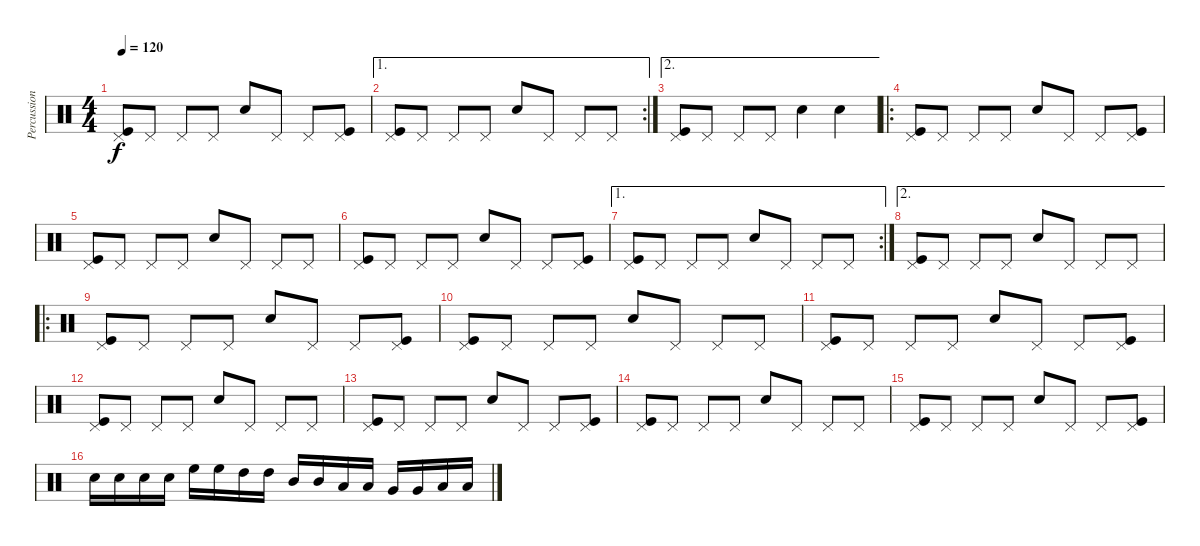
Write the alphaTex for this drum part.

\track ("Percussion" "Percussion") {instrument percussion}
\staff {score}
\articulation defaults
\ts (4 4)
\tempo 120
\clef neutral
\ks c
("Pedal Hi-Hat (hit)" "Kick (hit)").8{dy f} "Pedal Hi-Hat (hit)".8 "Pedal Hi-Hat (hit)".8 "Pedal Hi-Hat (hit)".8 "Snare (hit) 2".8 "Pedal Hi-Hat (hit)".8 "Pedal Hi-Hat (hit)".8 ("Pedal Hi-Hat (hit)" "Kick (hit)").8 |
\ae 1
\rc 2
("Pedal Hi-Hat (hit)" "Kick (hit)").8 "Pedal Hi-Hat (hit)".8 "Pedal Hi-Hat (hit)".8 "Pedal Hi-Hat (hit)".8 "Snare (hit) 2".8 "Pedal Hi-Hat (hit)".8 "Pedal Hi-Hat (hit)".8 "Pedal Hi-Hat (hit)".8 |
\ae 2
("Pedal Hi-Hat (hit)" "Kick (hit)").8 "Pedal Hi-Hat (hit)".8 "Pedal Hi-Hat (hit)".8 "Pedal Hi-Hat (hit)".8 "Snare (hit) 2".4 "Snare (hit) 2".4 |
\ro
("Pedal Hi-Hat (hit)" "Kick (hit)").8 "Pedal Hi-Hat (hit)".8 "Pedal Hi-Hat (hit)".8 "Pedal Hi-Hat (hit)".8 "Snare (hit) 2".8 "Pedal Hi-Hat (hit)".8 "Pedal Hi-Hat (hit)".8 ("Pedal Hi-Hat (hit)" "Kick (hit)").8 |
("Pedal Hi-Hat (hit)" "Kick (hit)").8 "Pedal Hi-Hat (hit)".8 "Pedal Hi-Hat (hit)".8 "Pedal Hi-Hat (hit)".8 "Snare (hit) 2".8 "Pedal Hi-Hat (hit)".8 "Pedal Hi-Hat (hit)".8 "Pedal Hi-Hat (hit)".8 |
("Pedal Hi-Hat (hit)" "Kick (hit)").8 "Pedal Hi-Hat (hit)".8 "Pedal Hi-Hat (hit)".8 "Pedal Hi-Hat (hit)".8 "Snare (hit) 2".8 "Pedal Hi-Hat (hit)".8 "Pedal Hi-Hat (hit)".8 ("Pedal Hi-Hat (hit)" "Kick (hit)").8 |
\ae 1
\rc 2
("Pedal Hi-Hat (hit)" "Kick (hit)").8 "Pedal Hi-Hat (hit)".8 "Pedal Hi-Hat (hit)".8 "Pedal Hi-Hat (hit)".8 "Snare (hit) 2".8 "Pedal Hi-Hat (hit)".8 "Pedal Hi-Hat (hit)".8 "Pedal Hi-Hat (hit)".8 |
\ae 2
("Pedal Hi-Hat (hit)" "Kick (hit)").8 "Pedal Hi-Hat (hit)".8 "Pedal Hi-Hat (hit)".8 "Pedal Hi-Hat (hit)".8 "Snare (hit) 2".8 "Pedal Hi-Hat (hit)".8 "Pedal Hi-Hat (hit)".8 "Pedal Hi-Hat (hit)".8 |
\ro
("Pedal Hi-Hat (hit)" "Kick (hit)").8 "Pedal Hi-Hat (hit)".8 "Pedal Hi-Hat (hit)".8 "Pedal Hi-Hat (hit)".8 "Snare (hit) 2".8 "Pedal Hi-Hat (hit)".8 "Pedal Hi-Hat (hit)".8 ("Pedal Hi-Hat (hit)" "Kick (hit)").8 |
("Pedal Hi-Hat (hit)" "Kick (hit)").8 "Pedal Hi-Hat (hit)".8 "Pedal Hi-Hat (hit)".8 "Pedal Hi-Hat (hit)".8 "Snare (hit) 2".8 "Pedal Hi-Hat (hit)".8 "Pedal Hi-Hat (hit)".8 "Pedal Hi-Hat (hit)".8 |
("Pedal Hi-Hat (hit)" "Kick (hit)").8 "Pedal Hi-Hat (hit)".8 "Pedal Hi-Hat (hit)".8 "Pedal Hi-Hat (hit)".8 "Snare (hit) 2".8 "Pedal Hi-Hat (hit)".8 "Pedal Hi-Hat (hit)".8 ("Pedal Hi-Hat (hit)" "Kick (hit)").8 |
("Pedal Hi-Hat (hit)" "Kick (hit)").8 "Pedal Hi-Hat (hit)".8 "Pedal Hi-Hat (hit)".8 "Pedal Hi-Hat (hit)".8 "Snare (hit) 2".8 "Pedal Hi-Hat (hit)".8 "Pedal Hi-Hat (hit)".8 "Pedal Hi-Hat (hit)".8 |
("Pedal Hi-Hat (hit)" "Kick (hit)").8 "Pedal Hi-Hat (hit)".8 "Pedal Hi-Hat (hit)".8 "Pedal Hi-Hat (hit)".8 "Snare (hit) 2".8 "Pedal Hi-Hat (hit)".8 "Pedal Hi-Hat (hit)".8 ("Pedal Hi-Hat (hit)" "Kick (hit)").8 |
("Pedal Hi-Hat (hit)" "Kick (hit)").8 "Pedal Hi-Hat (hit)".8 "Pedal Hi-Hat (hit)".8 "Pedal Hi-Hat (hit)".8 "Snare (hit) 2".8 "Pedal Hi-Hat (hit)".8 "Pedal Hi-Hat (hit)".8 "Pedal Hi-Hat (hit)".8 |
("Pedal Hi-Hat (hit)" "Kick (hit)").8 "Pedal Hi-Hat (hit)".8 "Pedal Hi-Hat (hit)".8 "Pedal Hi-Hat (hit)".8 "Snare (hit) 2".8 "Pedal Hi-Hat (hit)".8 "Pedal Hi-Hat (hit)".8 ("Pedal Hi-Hat (hit)" "Kick (hit)").8 |
"Snare (hit) 2".16 "Snare (hit) 2".16 "Snare (hit) 2".16 "Snare (hit) 2".16 "High Floor Tom (hit)".16 "High Floor Tom (hit)".16 "High Tom (hit)".16 "High Tom (hit)".16 "Mid Tom (hit)".16 "Mid Tom (hit)".16 "Low Tom (hit)".16 "Low Tom (hit)".16 "Very Low Tom (hit)".16 "Very Low Tom (hit)".16 "Low Floor Tom (hit)".16 "Low Floor Tom (hit)".16
